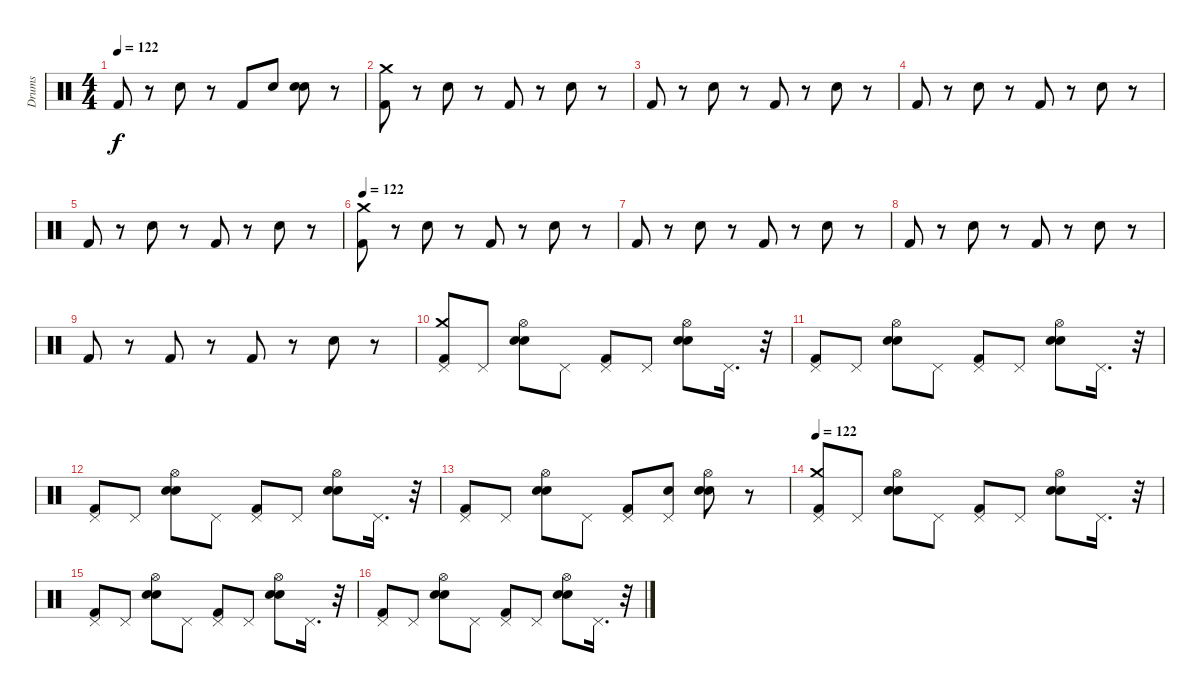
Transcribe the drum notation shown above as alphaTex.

\track ("Drums" "Drums") {instrument percussion}
\staff {score}
\articulation defaults
\ts (4 4)
\tempo 122
\clef neutral
\ks c "Kick (hit) 2".8{dy f}
r.8 "Snare (hit) 2".8 r.8 "Kick (hit) 2".8 "Hand Clap (hit)".8 ("Hand Clap (hit)" "Snare (hit) 2").8 r.8 |
("Crash medium (hit)" "Kick (hit) 2").8 r.8 "Snare (hit) 2".8 r.8 "Kick (hit) 2".8 r.8 "Snare (hit) 2".8 r.8 |
"Kick (hit) 2".8 r.8 "Snare (hit) 2".8 r.8 "Kick (hit) 2".8 r.8 "Snare (hit) 2".8 r.8 |
"Kick (hit) 2".8 r.8 "Snare (hit) 2".8 r.8 "Kick (hit) 2".8 r.8 "Snare (hit) 2".8 r.8 |
"Kick (hit) 2".8 r.8 "Snare (hit) 2".8 r.8 "Kick (hit) 2".8 r.8 "Snare (hit) 2".8 r.8 |
\tempo 122
("Crash medium (hit)" "Kick (hit) 2").8 r.8 "Snare (hit) 2".8 r.8 "Kick (hit) 2".8 r.8 "Snare (hit) 2".8 r.8 |
"Kick (hit) 2".8 r.8 "Snare (hit) 2".8 r.8 "Kick (hit) 2".8 r.8 "Snare (hit) 2".8 r.8 |
"Kick (hit) 2".8 r.8 "Snare (hit) 2".8 r.8 "Kick (hit) 2".8 r.8 "Snare (hit) 2".8 r.8 |
"Kick (hit) 2".8 r.8 "Kick (hit) 2".8 r.8 "Kick (hit) 2".8 r.8 "Hand Clap (hit)".8 r.8 |
("Pedal Hi-Hat (hit)" "Kick (hit) 2" "Crash medium (hit)").8 "Pedal Hi-Hat (hit)".8 ("Hi-Hat (open)" "Hand Clap (hit)" "Snare (hit) 2").8 "Pedal Hi-Hat (hit)".8 ("Pedal Hi-Hat (hit)" "Kick (hit) 2").8 "Pedal Hi-Hat (hit)".8 ("Hi-Hat (open)" "Hand Clap (hit)" "Snare (hit) 2").8 "Pedal Hi-Hat (hit)".16{d} r.32 |
("Pedal Hi-Hat (hit)" "Kick (hit) 2").8 "Pedal Hi-Hat (hit)".8 ("Hi-Hat (open)" "Snare (hit) 2" "Hand Clap (hit)").8 "Pedal Hi-Hat (hit)".8 ("Pedal Hi-Hat (hit)" "Kick (hit) 2").8 "Pedal Hi-Hat (hit)".8 ("Hi-Hat (open)" "Hand Clap (hit)" "Snare (hit) 2").8 "Pedal Hi-Hat (hit)".16{d} r.32 |
("Pedal Hi-Hat (hit)" "Kick (hit) 2").8 "Pedal Hi-Hat (hit)".8 ("Hi-Hat (open)" "Hand Clap (hit)" "Snare (hit) 2").8 "Pedal Hi-Hat (hit)".8 ("Pedal Hi-Hat (hit)" "Kick (hit) 2").8 "Pedal Hi-Hat (hit)".8 ("Hi-Hat (open)" "Hand Clap (hit)" "Snare (hit) 2").8 "Pedal Hi-Hat (hit)".16{d} r.32 |
("Pedal Hi-Hat (hit)" "Kick (hit) 2").8 "Pedal Hi-Hat (hit)".8 ("Hi-Hat (open)" "Snare (hit) 2" "Hand Clap (hit)").8 "Pedal Hi-Hat (hit)".8 ("Pedal Hi-Hat (hit)" "Kick (hit) 2").8 ("Pedal Hi-Hat (hit)" "Hand Clap (hit)").8 ("Hi-Hat (open)" "Snare (hit) 2" "Hand Clap (hit)").8 r.8 |
\tempo 122
("Pedal Hi-Hat (hit)" "Kick (hit) 2" "Crash medium (hit)").8 "Pedal Hi-Hat (hit)".8 ("Hi-Hat (open)" "Hand Clap (hit)" "Snare (hit) 2").8 "Pedal Hi-Hat (hit)".8 ("Pedal Hi-Hat (hit)" "Kick (hit) 2").8 "Pedal Hi-Hat (hit)".8 ("Hi-Hat (open)" "Hand Clap (hit)" "Snare (hit) 2").8 "Pedal Hi-Hat (hit)".16{d} r.32 |
("Pedal Hi-Hat (hit)" "Kick (hit) 2").8 "Pedal Hi-Hat (hit)".8 ("Hi-Hat (open)" "Snare (hit) 2" "Hand Clap (hit)").8 "Pedal Hi-Hat (hit)".8 ("Pedal Hi-Hat (hit)" "Kick (hit) 2").8 "Pedal Hi-Hat (hit)".8 ("Hi-Hat (open)" "Hand Clap (hit)" "Snare (hit) 2").8 "Pedal Hi-Hat (hit)".16{d} r.32 |
("Pedal Hi-Hat (hit)" "Kick (hit) 2").8 "Pedal Hi-Hat (hit)".8 ("Hi-Hat (open)" "Hand Clap (hit)" "Snare (hit) 2").8 "Pedal Hi-Hat (hit)".8 ("Pedal Hi-Hat (hit)" "Kick (hit) 2").8 "Pedal Hi-Hat (hit)".8 ("Hi-Hat (open)" "Hand Clap (hit)" "Snare (hit) 2").8 "Pedal Hi-Hat (hit)".16{d} r.32
